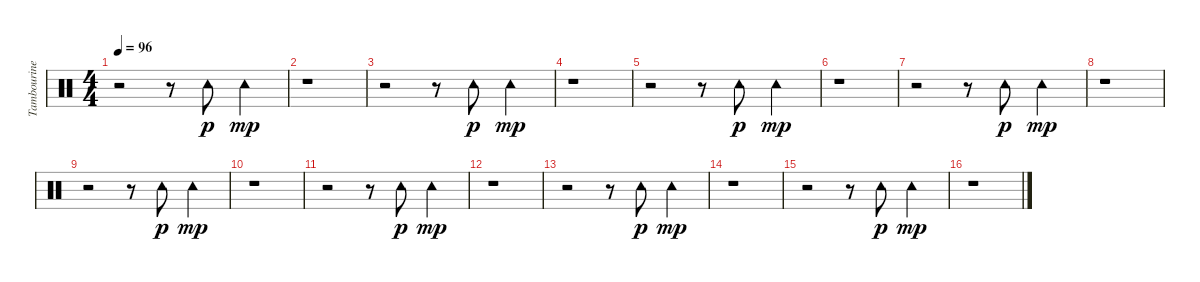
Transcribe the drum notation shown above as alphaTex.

\track ("Tambourine" "Tambourine") {instrument percussion}
\staff {score}
\articulation defaults
\ts (4 4)
\tempo 96
\clef neutral
\ks c
r.2{dy p} r.8 "Tambourine (hit)".8 "Tambourine (hit)".4{dy mp} |
r.1 |
r.2 r.8 "Tambourine (hit)".8{dy p} "Tambourine (hit)".4{dy mp} |
r.1 |
r.2 r.8 "Tambourine (hit)".8{dy p} "Tambourine (hit)".4{dy mp} |
r.1 |
r.2 r.8 "Tambourine (hit)".8{dy p} "Tambourine (hit)".4{dy mp} |
r.1 |
r.2 r.8 "Tambourine (hit)".8{dy p} "Tambourine (hit)".4{dy mp} |
r.1 |
r.2 r.8 "Tambourine (hit)".8{dy p} "Tambourine (hit)".4{dy mp} |
r.1 |
r.2 r.8 "Tambourine (hit)".8{dy p} "Tambourine (hit)".4{dy mp} |
r.1 |
r.2 r.8 "Tambourine (hit)".8{dy p} "Tambourine (hit)".4{dy mp} |
r.1
